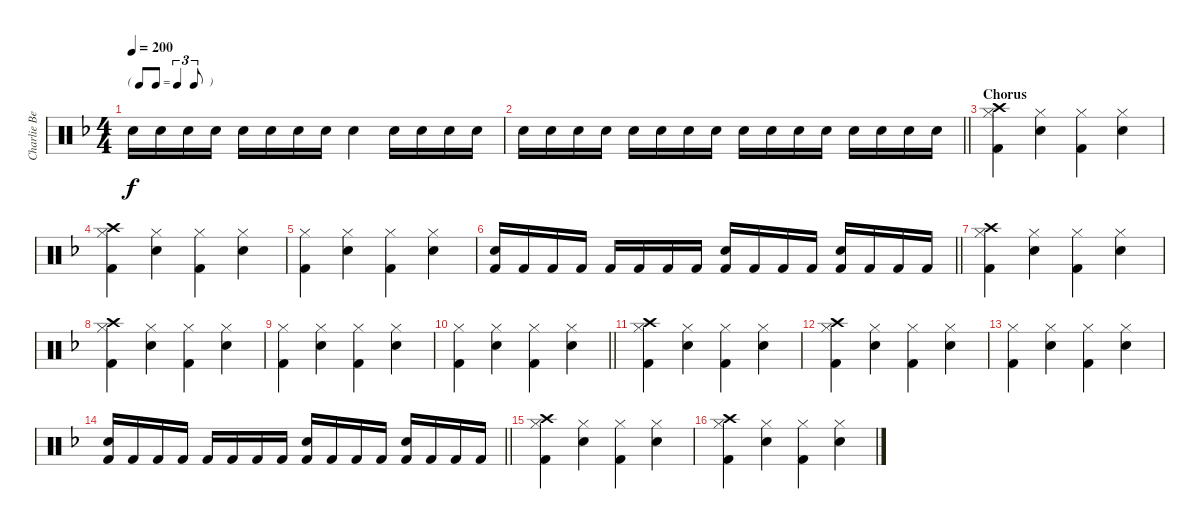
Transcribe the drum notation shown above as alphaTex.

\track ("Charlie Benante" "Charlie Be") {instrument percussion}
\staff {score}
\articulation defaults
\ts (4 4)
\tf triplet8th
\tempo 200
\clef neutral
\ks f "Electric Snare (hit)".16{dy f} "Electric Snare (hit)".16 "Electric Snare (hit)".16 "Electric Snare (hit)".16 "Electric Snare (hit)".16 "Electric Snare (hit)".16 "Electric Snare (hit)".16 "Electric Snare (hit)".16 "Electric Snare (hit)".4 "Electric Snare (hit)".16 "Electric Snare (hit)".16 "Electric Snare (hit)".16 "Electric Snare (hit)".16
|
\barLineRight lightlight "Electric Snare (hit)".16 "Electric Snare (hit)".16 "Electric Snare (hit)".16 "Electric Snare (hit)".16 "Electric Snare (hit)".16 "Electric Snare (hit)".16 "Electric Snare (hit)".16 "Electric Snare (hit)".16 "Electric Snare (hit)".16 "Electric Snare (hit)".16 "Electric Snare (hit)".16 "Electric Snare (hit)".16 "Electric Snare (hit)".16 "Electric Snare (hit)".16 "Electric Snare (hit)".16 "Electric Snare (hit)".16
|
\section ("" "Chorus")
("Crash high (hit)" "Hi-Hat (closed)" "Kick (hit) 2").4 ("Hi-Hat (closed)" "Electric Snare (hit)").4 ("Hi-Hat (closed)" "Kick (hit) 2").4 ("Hi-Hat (closed)" "Electric Snare (hit)").4 |
("Crash high (hit)" "Hi-Hat (closed)" "Kick (hit) 2").4 ("Hi-Hat (closed)" "Electric Snare (hit)").4 ("Hi-Hat (closed)" "Kick (hit) 2").4 ("Hi-Hat (closed)" "Electric Snare (hit)").4 |
("Hi-Hat (closed)" "Kick (hit) 2").4 ("Hi-Hat (closed)" "Electric Snare (hit)").4 ("Hi-Hat (closed)" "Kick (hit) 2").4 ("Hi-Hat (closed)" "Electric Snare (hit)").4 |
\barLineRight lightlight
("Electric Snare (hit)" "Kick (hit) 2").16 "Kick (hit) 2".16 "Kick (hit) 2".16 "Kick (hit) 2".16 "Kick (hit) 2".16 "Kick (hit) 2".16 "Kick (hit) 2".16 "Kick (hit) 2".16 ("Electric Snare (hit)" "Kick (hit) 2").16 "Kick (hit) 2".16 "Kick (hit) 2".16 "Kick (hit) 2".16 ("Electric Snare (hit)" "Kick (hit) 2").16 "Kick (hit) 2".16 "Kick (hit) 2".16 "Kick (hit) 2".16 |
("Crash high (hit)" "Hi-Hat (closed)" "Kick (hit) 2").4 ("Hi-Hat (closed)" "Electric Snare (hit)").4 ("Hi-Hat (closed)" "Kick (hit) 2").4 ("Hi-Hat (closed)" "Electric Snare (hit)").4 |
("Crash high (hit)" "Hi-Hat (closed)" "Kick (hit) 2").4 ("Hi-Hat (closed)" "Electric Snare (hit)").4 ("Hi-Hat (closed)" "Kick (hit) 2").4 ("Hi-Hat (closed)" "Electric Snare (hit)").4 |
("Hi-Hat (closed)" "Kick (hit) 2").4 ("Hi-Hat (closed)" "Electric Snare (hit)").4 ("Hi-Hat (closed)" "Kick (hit) 2").4 ("Hi-Hat (closed)" "Electric Snare (hit)").4 |
\barLineRight lightlight
("Hi-Hat (closed)" "Kick (hit) 2").4 ("Hi-Hat (closed)" "Electric Snare (hit)").4 ("Hi-Hat (closed)" "Kick (hit) 2").4 ("Hi-Hat (closed)" "Electric Snare (hit)").4 |
("Crash high (hit)" "Hi-Hat (closed)" "Kick (hit) 2").4 ("Hi-Hat (closed)" "Electric Snare (hit)").4 ("Hi-Hat (closed)" "Kick (hit) 2").4 ("Hi-Hat (closed)" "Electric Snare (hit)").4 |
("Crash high (hit)" "Hi-Hat (closed)" "Kick (hit) 2").4 ("Hi-Hat (closed)" "Electric Snare (hit)").4 ("Hi-Hat (closed)" "Kick (hit) 2").4 ("Hi-Hat (closed)" "Electric Snare (hit)").4 |
("Hi-Hat (closed)" "Kick (hit) 2").4 ("Hi-Hat (closed)" "Electric Snare (hit)").4 ("Hi-Hat (closed)" "Kick (hit) 2").4 ("Hi-Hat (closed)" "Electric Snare (hit)").4 |
\barLineRight lightlight
("Electric Snare (hit)" "Kick (hit) 2").16 "Kick (hit) 2".16 "Kick (hit) 2".16 "Kick (hit) 2".16 "Kick (hit) 2".16 "Kick (hit) 2".16 "Kick (hit) 2".16 "Kick (hit) 2".16 ("Electric Snare (hit)" "Kick (hit) 2").16 "Kick (hit) 2".16 "Kick (hit) 2".16 "Kick (hit) 2".16 ("Electric Snare (hit)" "Kick (hit) 2").16 "Kick (hit) 2".16 "Kick (hit) 2".16 "Kick (hit) 2".16 |
("Crash high (hit)" "Hi-Hat (closed)" "Kick (hit) 2").4 ("Hi-Hat (closed)" "Electric Snare (hit)").4 ("Hi-Hat (closed)" "Kick (hit) 2").4 ("Hi-Hat (closed)" "Electric Snare (hit)").4 |
("Crash high (hit)" "Hi-Hat (closed)" "Kick (hit) 2").4 ("Hi-Hat (closed)" "Electric Snare (hit)").4 ("Hi-Hat (closed)" "Kick (hit) 2").4 ("Hi-Hat (closed)" "Electric Snare (hit)").4
